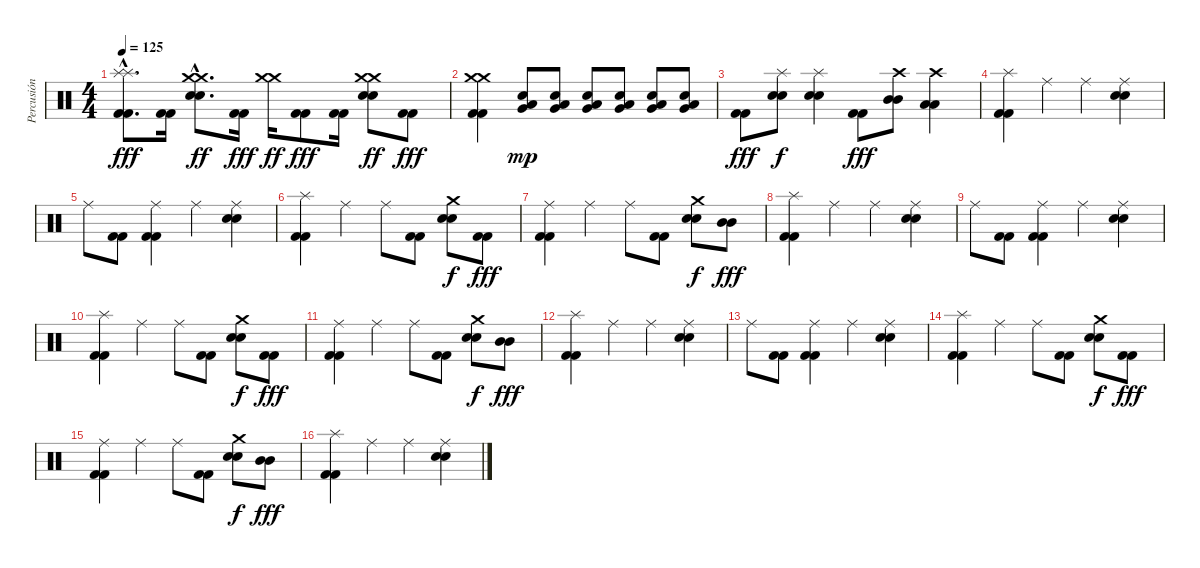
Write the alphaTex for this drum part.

\track ("Percusión" "Percusión") {instrument percussion}
\staff {score}
\articulation defaults
\ts (4 4)
\tempo 125
\clef neutral
\ks c
("Splash (hit)"{hac} "Splash (hit)"{hac} "Kick (hit) 2"{hac} "Kick (hit) 2"{hac}).8{d dy fff} ("Kick (hit) 2" "Kick (hit) 2").16 ("Crash medium (hit)"{hac} "Crash medium (hit)"{hac} "Electric Snare (hit)"{hac} "Electric Snare (hit)"{hac}).8{d dy ff} ("Kick (hit) 2" "Kick (hit) 2").16{dy fff} ("Crash medium (hit)" "Crash medium (hit)").16{dy ff} ("Kick (hit) 2" "Kick (hit) 2").8{dy fff} ("Kick (hit) 2" "Kick (hit) 2").16 ("Crash medium (hit)" "Crash medium (hit)" "Electric Snare (hit)" "Electric Snare (hit)").8{dy ff} ("Kick (hit) 2" "Kick (hit) 2").8{dy fff} |
("Crash medium (hit)" "Crash medium (hit)" "Kick (hit) 2" "Kick (hit) 2").4 ("Electric Snare (hit)" "Low Tom (hit)" "Very Low Tom (hit)").8{dy mp} ("Electric Snare (hit)" "Low Tom (hit)" "Very Low Tom (hit)").8 ("Electric Snare (hit)" "Low Tom (hit)" "Very Low Tom (hit)").8 ("Electric Snare (hit)" "Low Tom (hit)" "Very Low Tom (hit)").8 ("Electric Snare (hit)" "Low Tom (hit)" "Very Low Tom (hit)").8 ("Electric Snare (hit)" "Low Tom (hit)" "Very Low Tom (hit)").8 |
("Kick (hit) 2" "Kick (hit) 2").8{dy fff} ("Splash (hit)" "Electric Snare (hit)" "Electric Snare (hit)").8{dy f} ("Splash (hit)" "Electric Snare (hit)" "Electric Snare (hit)").4 ("Kick (hit) 2" "Kick (hit) 2").8{dy fff} ("Crash high (hit)" "Mid Tom (hit)" "Mid Tom (hit)").8 ("Crash high (hit)" "Low Tom (hit)" "Low Tom (hit)").4 |
("Splash (hit)" "Kick (hit) 2" "Kick (hit) 2").4 "Ride (middle)".4 "Ride (middle)".4 ("Ride (middle)" "Electric Snare (hit)" "Electric Snare (hit)").4 |
"Ride (middle)".8 ("Kick (hit) 2" "Kick (hit) 2").8 ("Ride (middle)" "Kick (hit) 2" "Kick (hit) 2").4 "Ride (middle)".4 ("Ride (middle)" "Electric Snare (hit)" "Electric Snare (hit)").4 |
("Splash (hit)" "Kick (hit) 2" "Kick (hit) 2").4 "Ride (middle)".4 "Ride (middle)".8 ("Kick (hit) 2" "Kick (hit) 2").8 ("Crash medium (hit)" "Electric Snare (hit)" "Electric Snare (hit)").8{dy f} ("Kick (hit) 2" "Kick (hit) 2").8{dy fff} |
("Ride (middle)" "Kick (hit) 2" "Kick (hit) 2").4 "Ride (middle)".4 "Ride (middle)".8 ("Kick (hit) 2" "Kick (hit) 2").8 ("Crash medium (hit)" "Electric Snare (hit)" "Electric Snare (hit)").8{dy f} ("Mid Tom (hit)" "Mid Tom (hit)").8{dy fff} |
("Splash (hit)" "Kick (hit) 2" "Kick (hit) 2").4 "Ride (middle)".4 "Ride (middle)".4 ("Ride (middle)" "Electric Snare (hit)" "Electric Snare (hit)").4 |
"Ride (middle)".8 ("Kick (hit) 2" "Kick (hit) 2").8 ("Ride (middle)" "Kick (hit) 2" "Kick (hit) 2").4 "Ride (middle)".4 ("Ride (middle)" "Electric Snare (hit)" "Electric Snare (hit)").4 |
("Splash (hit)" "Kick (hit) 2" "Kick (hit) 2").4 "Ride (middle)".4 "Ride (middle)".8 ("Kick (hit) 2" "Kick (hit) 2").8 ("Crash medium (hit)" "Electric Snare (hit)" "Electric Snare (hit)").8{dy f} ("Kick (hit) 2" "Kick (hit) 2").8{dy fff} |
("Ride (middle)" "Kick (hit) 2" "Kick (hit) 2").4 "Ride (middle)".4 "Ride (middle)".8 ("Kick (hit) 2" "Kick (hit) 2").8 ("Crash medium (hit)" "Electric Snare (hit)" "Electric Snare (hit)").8{dy f} ("Mid Tom (hit)" "Mid Tom (hit)").8{dy fff} |
("Splash (hit)" "Kick (hit) 2" "Kick (hit) 2").4 "Ride (middle)".4 "Ride (middle)".4 ("Ride (middle)" "Electric Snare (hit)" "Electric Snare (hit)").4 |
"Ride (middle)".8 ("Kick (hit) 2" "Kick (hit) 2").8 ("Ride (middle)" "Kick (hit) 2" "Kick (hit) 2").4 "Ride (middle)".4 ("Ride (middle)" "Electric Snare (hit)" "Electric Snare (hit)").4 |
("Splash (hit)" "Kick (hit) 2" "Kick (hit) 2").4 "Ride (middle)".4 "Ride (middle)".8 ("Kick (hit) 2" "Kick (hit) 2").8 ("Crash medium (hit)" "Electric Snare (hit)" "Electric Snare (hit)").8{dy f} ("Kick (hit) 2" "Kick (hit) 2").8{dy fff} |
("Ride (middle)" "Kick (hit) 2" "Kick (hit) 2").4 "Ride (middle)".4 "Ride (middle)".8 ("Kick (hit) 2" "Kick (hit) 2").8 ("Crash medium (hit)" "Electric Snare (hit)" "Electric Snare (hit)").8{dy f} ("Mid Tom (hit)" "Mid Tom (hit)").8{dy fff} |
("Splash (hit)" "Kick (hit) 2" "Kick (hit) 2").4 "Ride (middle)".4 "Ride (middle)".4 ("Ride (middle)" "Electric Snare (hit)" "Electric Snare (hit)").4
